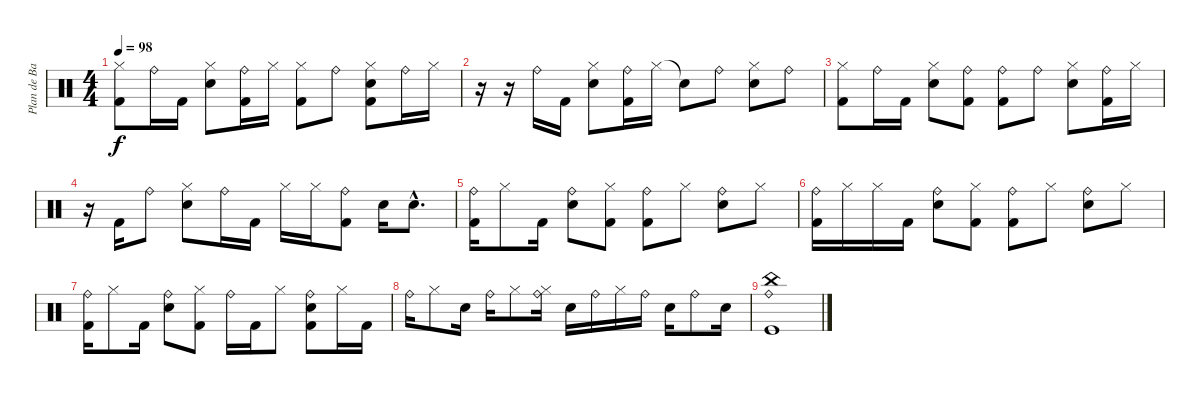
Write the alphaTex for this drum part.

\track ("Plan de Batterie" "Plan de Ba") {instrument percussion}
\staff {score}
\articulation defaults
\ts (4 4)
\tempo 98
\clef neutral
\ks c
("Kick (hit) 2" "Hi-Hat (closed)").8{dy f} "Ride (bell)".16 "Kick (hit) 2".16 ("Electric Snare (hit)" "Hi-Hat (closed)").8 ("Kick (hit) 2" "Ride (bell)").16 "Hi-Hat (closed)".16 ("Kick (hit) 2" "Hi-Hat (closed)").8 "Ride (bell)".8 ("Kick (hit) 2" "Electric Snare (hit)" "Hi-Hat (closed)").8 "Ride (bell)".16 "Hi-Hat (closed)".16 |
r.16 r.16 "Ride (bell)".16 "Kick (hit) 2".16 ("Electric Snare (hit)" "Hi-Hat (closed)").8 ("Kick (hit) 2" "Ride (bell)").16 "Hi-Hat (closed)".16 "Snare (hit)"{t}.8 "Ride (bell)".8 ("Electric Snare (hit)" "Hi-Hat (closed)").8 "Ride (bell)".8 |
("Kick (hit) 2" "Hi-Hat (closed)").8 "Ride (bell)".16 "Kick (hit) 2".16 ("Electric Snare (hit)" "Hi-Hat (closed)").8 ("Kick (hit) 2" "Ride (bell)").8 ("Kick (hit) 2" "Ride (bell)").8 "Ride (bell)".8 ("Electric Snare (hit)" "Hi-Hat (closed)").8 ("Kick (hit) 2" "Ride (bell)").16 "Hi-Hat (closed)".16 |
r.16 "Kick (hit) 2".16 "Ride (bell)".8 ("Electric Snare (hit)" "Hi-Hat (closed)").8 "Ride (bell)".16 "Kick (hit) 2".16 "Hi-Hat (closed)".16 "Hi-Hat (closed)".16 ("Kick (hit) 2" "Ride (bell)").8 "Electric Snare (hit)".16 "Electric Snare (hit)"{hac}.8{d} |
("Kick (hit) 2" "Ride (bell)").16 "Hi-Hat (closed)".8 "Kick (hit) 2".16 ("Electric Snare (hit)" "Ride (bell)").8 ("Kick (hit) 2" "Hi-Hat (closed)").8 ("Kick (hit) 2" "Ride (bell)").8 "Hi-Hat (closed)".8 ("Electric Snare (hit)" "Ride (bell)").8 "Hi-Hat (closed)".8 |
("Kick (hit) 2" "Ride (bell)").16 "Hi-Hat (closed)".16 "Hi-Hat (closed)".16 "Kick (hit) 2".16 ("Electric Snare (hit)" "Ride (bell)").8 ("Kick (hit) 2" "Hi-Hat (closed)").8 ("Kick (hit) 2" "Ride (bell)").8 "Hi-Hat (closed)".8 ("Electric Snare (hit)" "Ride (bell)").8 "Hi-Hat (closed)".8 |
("Kick (hit) 2" "Ride (bell)").16 "Hi-Hat (closed)".8 "Kick (hit) 2".16 ("Electric Snare (hit)" "Ride (bell)").8 ("Kick (hit) 2" "Hi-Hat (closed)").8 "Ride (bell)".16 "Kick (hit) 2".16 "Hi-Hat (closed)".8 ("Kick (hit) 2" "Electric Snare (hit)" "Ride (bell)").8 "Hi-Hat (closed)".16 "Kick (hit) 2".16 |
"Ride (bell)".16 "Hi-Hat (closed)".8 "Electric Snare (hit)".16 "Ride (bell)".16 "Hi-Hat (closed)".8 ("Hi-Hat (closed)" "Ride (bell)").16 "Electric Snare (hit)".16 "Ride (bell)".16 "Hi-Hat (closed)".16 "Ride (bell)".16 "Electric Snare (hit)".16 "Ride (bell)".8 "Electric Snare (hit)".16 |
("Ride (bell)" "China (hit)" "Kick (hit)").1
